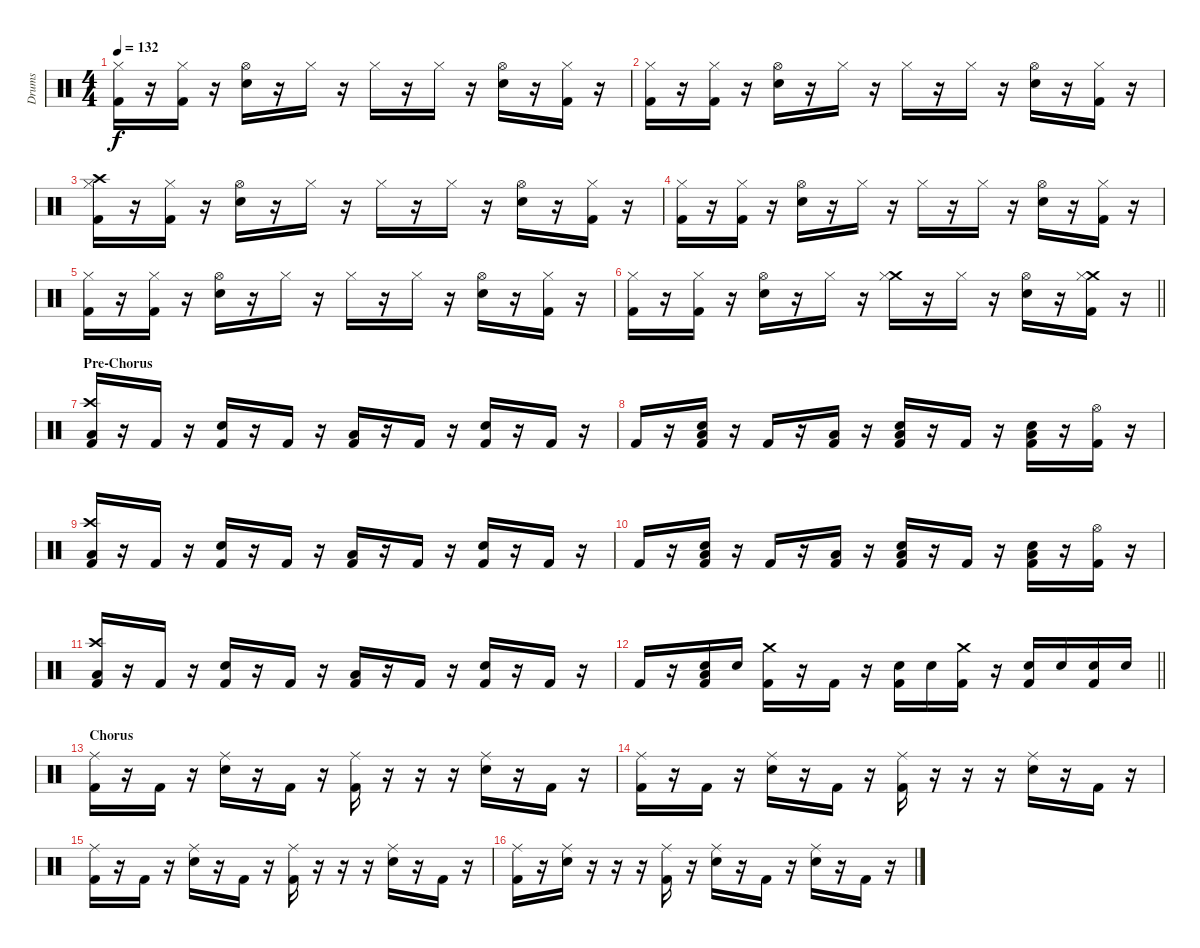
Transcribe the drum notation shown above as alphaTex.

\track ("Drums" "Drums") {instrument percussion}
\staff {score}
\articulation defaults
\ts (4 4)
\tempo 132
\clef neutral
\ks c
("Hi-Hat (closed)" "Kick (hit) 2").16{dy f} r.16 ("Hi-Hat (closed)" "Kick (hit) 2").16 r.16 ("Hi-Hat (open)" "Snare (hit) 2").16 r.16 "Hi-Hat (closed)".16 r.16 "Hi-Hat (closed)".16 r.16 "Hi-Hat (closed)".16 r.16 ("Hi-Hat (open)" "Snare (hit) 2").16 r.16 ("Hi-Hat (closed)" "Kick (hit) 2").16 r.16 |
("Hi-Hat (closed)" "Kick (hit) 2").16 r.16 ("Hi-Hat (closed)" "Kick (hit) 2").16 r.16 ("Hi-Hat (open)" "Snare (hit) 2").16 r.16 "Hi-Hat (closed)".16 r.16 "Hi-Hat (closed)".16 r.16 "Hi-Hat (closed)".16 r.16 ("Hi-Hat (open)" "Snare (hit) 2").16 r.16 ("Hi-Hat (closed)" "Kick (hit) 2").16 r.16 |
("Crash high (hit)" "Hi-Hat (closed)" "Kick (hit) 2").16 r.16 ("Hi-Hat (closed)" "Kick (hit) 2").16 r.16 ("Hi-Hat (open)" "Snare (hit) 2").16 r.16 "Hi-Hat (closed)".16 r.16 "Hi-Hat (closed)".16 r.16 "Hi-Hat (closed)".16 r.16 ("Hi-Hat (open)" "Snare (hit) 2").16 r.16 ("Hi-Hat (closed)" "Kick (hit) 2").16 r.16 |
("Hi-Hat (closed)" "Kick (hit) 2").16 r.16 ("Hi-Hat (closed)" "Kick (hit) 2").16 r.16 ("Hi-Hat (open)" "Snare (hit) 2").16 r.16 "Hi-Hat (closed)".16 r.16 "Hi-Hat (closed)".16 r.16 "Hi-Hat (closed)".16 r.16 ("Hi-Hat (open)" "Snare (hit) 2").16 r.16 ("Hi-Hat (closed)" "Kick (hit) 2").16 r.16 |
("Hi-Hat (closed)" "Kick (hit) 2").16 r.16 ("Hi-Hat (closed)" "Kick (hit) 2").16 r.16 ("Hi-Hat (open)" "Snare (hit) 2").16 r.16 "Hi-Hat (closed)".16 r.16 "Hi-Hat (closed)".16 r.16 "Hi-Hat (closed)".16 r.16 ("Hi-Hat (open)" "Snare (hit) 2").16 r.16 ("Hi-Hat (closed)" "Kick (hit) 2").16 r.16 |
\barLineRight lightlight
("Hi-Hat (closed)" "Kick (hit) 2").16 r.16 ("Hi-Hat (closed)" "Kick (hit) 2").16 r.16 ("Hi-Hat (open)" "Snare (hit) 2").16 r.16 "Hi-Hat (closed)".16 r.16 ("Crash medium (hit)" "Hi-Hat (closed)").16 r.16 "Hi-Hat (closed)".16 r.16 ("Hi-Hat (open)" "Snare (hit) 2").16 r.16 ("Crash medium (hit)" "Hi-Hat (closed)" "Kick (hit) 2").16 r.16 |
\section ("" "Pre-Chorus")
("Crash high (hit)" "Low Tom (hit)" "Kick (hit) 2").16 r.16 "Kick (hit) 2".16 r.16 ("Snare (hit) 2" "Kick (hit) 2").16 r.16 "Kick (hit) 2".16 r.16 ("Low Tom (hit)" "Kick (hit) 2").16 r.16 "Kick (hit) 2".16 r.16 ("Snare (hit) 2" "Kick (hit) 2").16 r.16 "Kick (hit) 2".16 r.16 |
"Kick (hit) 2".16 r.16 ("Low Tom (hit)" "Snare (hit) 2" "Kick (hit) 2").16 r.16 "Kick (hit) 2".16 r.16 ("Low Tom (hit)" "Kick (hit) 2").16 r.16 ("Low Tom (hit)" "Snare (hit) 2" "Kick (hit) 2").16 r.16 "Kick (hit) 2".16 r.16 ("Low Tom (hit)" "Snare (hit) 2" "Kick (hit) 2").16 r.16 ("Hi-Hat (open)" "Kick (hit) 2").16 r.16 |
("Crash high (hit)" "Low Tom (hit)" "Kick (hit) 2").16 r.16 "Kick (hit) 2".16 r.16 ("Snare (hit) 2" "Kick (hit) 2").16 r.16 "Kick (hit) 2".16 r.16 ("Low Tom (hit)" "Kick (hit) 2").16 r.16 "Kick (hit) 2".16 r.16 ("Snare (hit) 2" "Kick (hit) 2").16 r.16 "Kick (hit) 2".16 r.16 |
"Kick (hit) 2".16 r.16 ("Low Tom (hit)" "Snare (hit) 2" "Kick (hit) 2").16 r.16 "Kick (hit) 2".16 r.16 ("Low Tom (hit)" "Kick (hit) 2").16 r.16 ("Low Tom (hit)" "Snare (hit) 2" "Kick (hit) 2").16 r.16 "Kick (hit) 2".16 r.16 ("Low Tom (hit)" "Snare (hit) 2" "Kick (hit) 2").16 r.16 ("Hi-Hat (open)" "Kick (hit) 2").16 r.16 |
("Crash high (hit)" "Low Tom (hit)" "Kick (hit) 2").16 r.16 "Kick (hit) 2".16 r.16 ("Snare (hit) 2" "Kick (hit) 2").16 r.16 "Kick (hit) 2".16 r.16 ("Low Tom (hit)" "Kick (hit) 2").16 r.16 "Kick (hit) 2".16 r.16 ("Snare (hit) 2" "Kick (hit) 2").16 r.16 "Kick (hit) 2".16 r.16 |
\barLineRight lightlight "Kick (hit) 2".16
r.16 ("Low Tom (hit)" "Snare (hit) 2" "Kick (hit) 2").16 "Snare (hit) 2".16 ("Crash medium (hit)" "Kick (hit) 2").16 r.16 "Kick (hit) 2".16 r.16 ("Snare (hit) 2" "Kick (hit) 2").16 "Snare (hit) 2".16 ("Crash medium (hit)" "Kick (hit) 2").16 r.16 ("Snare (hit) 2" "Kick (hit) 2").16 "Snare (hit) 2".16 ("Snare (hit) 2" "Kick (hit) 2").16 "Snare (hit) 2".16 |
\section ("" "Chorus")
("Ride (middle)" "Kick (hit) 2").16 r.16 "Kick (hit) 2".16 r.16 ("Ride (middle)" "Snare (hit) 2").16 r.16 "Kick (hit) 2".16 r.16 ("Ride (middle)" "Kick (hit) 2").16 r.16 r.16 r.16 ("Ride (middle)" "Snare (hit) 2").16 r.16 "Kick (hit) 2".16 r.16 |
("Ride (middle)" "Kick (hit) 2").16 r.16 "Kick (hit) 2".16 r.16 ("Ride (middle)" "Snare (hit) 2").16 r.16 "Kick (hit) 2".16 r.16 ("Ride (middle)" "Kick (hit) 2").16 r.16 r.16 r.16 ("Ride (middle)" "Snare (hit) 2").16 r.16 "Kick (hit) 2".16 r.16 |
("Ride (middle)" "Kick (hit) 2").16 r.16 "Kick (hit) 2".16 r.16 ("Ride (middle)" "Snare (hit) 2").16 r.16 "Kick (hit) 2".16 r.16 ("Ride (middle)" "Kick (hit) 2").16 r.16 r.16 r.16 ("Ride (middle)" "Snare (hit) 2").16 r.16 "Kick (hit) 2".16 r.16 |
("Ride (middle)" "Kick (hit) 2").16 r.16 ("Ride (middle)" "Snare (hit) 2").16 r.16 r.16 r.16 ("Ride (middle)" "Kick (hit) 2").16 r.16 ("Ride (middle)" "Snare (hit) 2").16 r.16 "Kick (hit) 2".16 r.16 ("Ride (middle)" "Snare (hit) 2").16 r.16 "Kick (hit) 2".16 r.16
